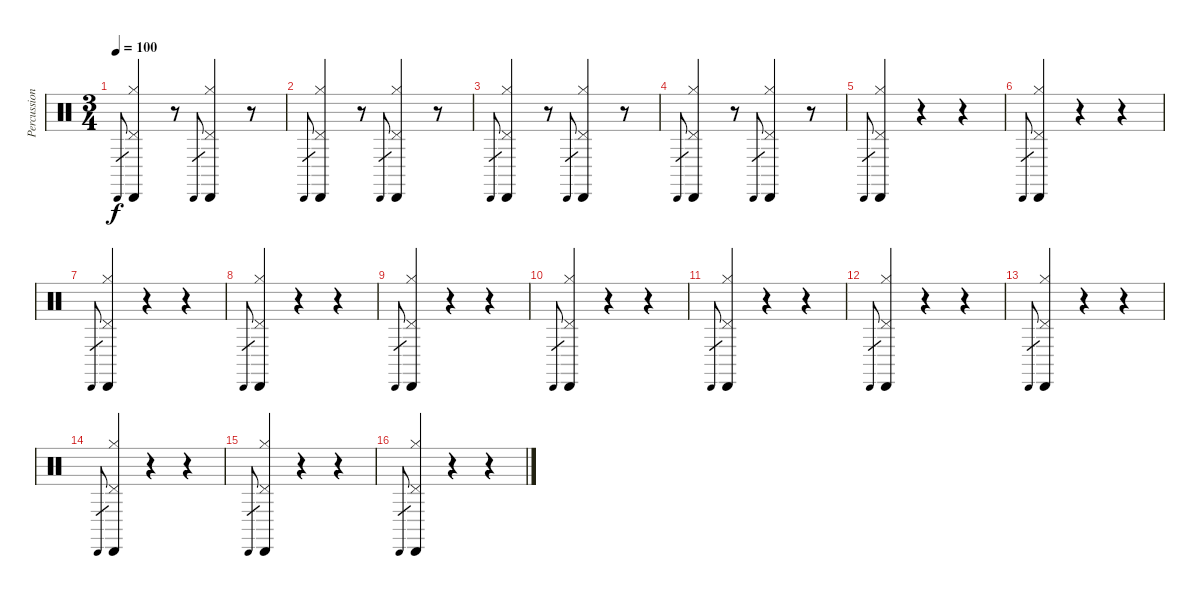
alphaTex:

\track ("Percussion" "Percussion") {instrument percussion}
\staff {score}
\articulation defaults
\ts (3 4)
\tempo 100
\clef neutral
\ks c "Cabasa (hit)".8{gr dy f}
("Pedal Hi-Hat (hit)" "Cabasa (hit)" "Hi-Hat (closed)").4 r.8 "Cabasa (hit)".8{gr} ("Pedal Hi-Hat (hit)" "Cabasa (hit)" "Hi-Hat (closed)").4 r.8 |
"Cabasa (hit)".8{gr} ("Pedal Hi-Hat (hit)" "Cabasa (hit)" "Hi-Hat (closed)").4 r.8 "Cabasa (hit)".8{gr} ("Pedal Hi-Hat (hit)" "Cabasa (hit)" "Hi-Hat (closed)").4 r.8 |
"Cabasa (hit)".8{gr} ("Pedal Hi-Hat (hit)" "Cabasa (hit)" "Hi-Hat (closed)").4 r.8 "Cabasa (hit)".8{gr} ("Pedal Hi-Hat (hit)" "Cabasa (hit)" "Hi-Hat (closed)").4 r.8 |
"Cabasa (hit)".8{gr} ("Pedal Hi-Hat (hit)" "Cabasa (hit)" "Hi-Hat (closed)").4 r.8 "Cabasa (hit)".8{gr} ("Pedal Hi-Hat (hit)" "Cabasa (hit)" "Hi-Hat (closed)").4 r.8 |
"Cabasa (hit)".8{gr} ("Pedal Hi-Hat (hit)" "Cabasa (hit)" "Hi-Hat (closed)").4 r.4 r.4 |
"Cabasa (hit)".8{gr} ("Pedal Hi-Hat (hit)" "Cabasa (hit)" "Hi-Hat (closed)").4 r.4 r.4 |
"Cabasa (hit)".8{gr} ("Pedal Hi-Hat (hit)" "Cabasa (hit)" "Hi-Hat (closed)").4 r.4 r.4 |
"Cabasa (hit)".8{gr} ("Pedal Hi-Hat (hit)" "Cabasa (hit)" "Hi-Hat (closed)").4 r.4 r.4 |
"Cabasa (hit)".8{gr} ("Pedal Hi-Hat (hit)" "Cabasa (hit)" "Hi-Hat (closed)").4 r.4 r.4 |
"Cabasa (hit)".8{gr} ("Pedal Hi-Hat (hit)" "Cabasa (hit)" "Hi-Hat (closed)").4 r.4 r.4 |
"Cabasa (hit)".8{gr} ("Pedal Hi-Hat (hit)" "Cabasa (hit)" "Hi-Hat (closed)").4 r.4 r.4 |
"Cabasa (hit)".8{gr} ("Pedal Hi-Hat (hit)" "Cabasa (hit)" "Hi-Hat (closed)").4 r.4 r.4 |
"Cabasa (hit)".8{gr} ("Pedal Hi-Hat (hit)" "Cabasa (hit)" "Hi-Hat (closed)").4 r.4 r.4 |
"Cabasa (hit)".8{gr} ("Pedal Hi-Hat (hit)" "Cabasa (hit)" "Hi-Hat (closed)").4 r.4 r.4 |
"Cabasa (hit)".8{gr} ("Pedal Hi-Hat (hit)" "Cabasa (hit)" "Hi-Hat (closed)").4 r.4 r.4 |
"Cabasa (hit)".8{gr} ("Pedal Hi-Hat (hit)" "Cabasa (hit)" "Hi-Hat (closed)").4 r.4 r.4
